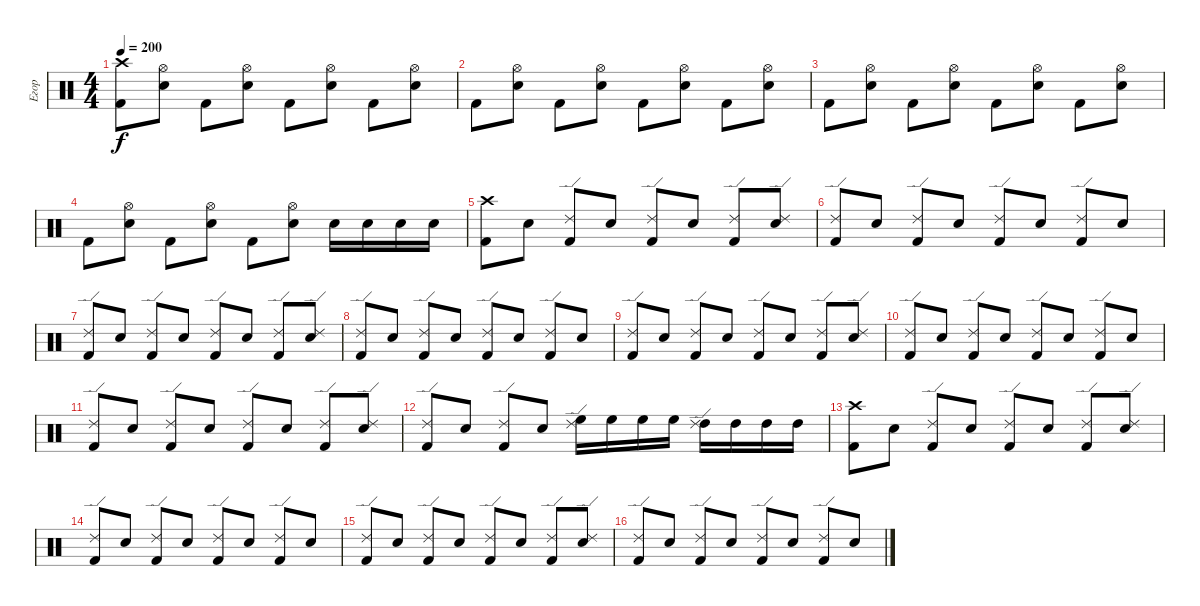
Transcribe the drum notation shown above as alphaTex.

\track ("Егор" "Егор") {instrument percussion}
\staff {score}
\articulation defaults
\ts (4 4)
\tempo 200
\clef neutral
\ks c
("Crash high (hit)" "Kick (hit) 2").8{dy f} ("Hi-Hat (open)" "Snare (hit) 2").8 "Kick (hit) 2".8 ("Hi-Hat (open)" "Snare (hit) 2").8 "Kick (hit) 2".8 ("Hi-Hat (open)" "Snare (hit) 2").8 "Kick (hit) 2".8 ("Hi-Hat (open)" "Snare (hit) 2").8 |
"Kick (hit) 2".8 ("Hi-Hat (open)" "Snare (hit) 2").8 "Kick (hit) 2".8 ("Hi-Hat (open)" "Snare (hit) 2").8 "Kick (hit) 2".8 ("Hi-Hat (open)" "Snare (hit) 2").8 "Kick (hit) 2".8 ("Hi-Hat (open)" "Snare (hit) 2").8 |
"Kick (hit) 2".8 ("Hi-Hat (open)" "Snare (hit) 2").8 "Kick (hit) 2".8 ("Hi-Hat (open)" "Snare (hit) 2").8 "Kick (hit) 2".8 ("Hi-Hat (open)" "Snare (hit) 2").8 "Kick (hit) 2".8 ("Hi-Hat (open)" "Snare (hit) 2").8 |
"Kick (hit) 2".8 ("Hi-Hat (open)" "Snare (hit) 2").8 "Kick (hit) 2".8 ("Hi-Hat (open)" "Snare (hit) 2").8 "Kick (hit) 2".8 ("Hi-Hat (open)" "Snare (hit) 2").8 "Snare (hit) 2".16 "Snare (hit) 2".16 "Snare (hit) 2".16 "Snare (hit) 2".16 |
("Kick (hit) 2" "Crash high (hit)").8 "Snare (hit) 2".8 ("Kick (hit) 2" "Ride (edge) 2").8 "Snare (hit) 2".8 ("Kick (hit) 2" "Ride (edge) 2").8 "Snare (hit) 2".8 ("Kick (hit) 2" "Ride (edge) 2").8 ("Snare (hit) 2" "Ride (edge) 2").8 |
("Kick (hit) 2" "Ride (edge) 2").8 "Snare (hit) 2".8 ("Kick (hit) 2" "Ride (edge) 2").8 "Snare (hit) 2".8 ("Kick (hit) 2" "Ride (edge) 2").8 "Snare (hit) 2".8 ("Kick (hit) 2" "Ride (edge) 2").8 "Snare (hit) 2".8 |
("Kick (hit) 2" "Ride (edge) 2").8 "Snare (hit) 2".8 ("Kick (hit) 2" "Ride (edge) 2").8 "Snare (hit) 2".8 ("Kick (hit) 2" "Ride (edge) 2").8 "Snare (hit) 2".8 ("Kick (hit) 2" "Ride (edge) 2").8 ("Snare (hit) 2" "Ride (edge) 2").8 |
("Kick (hit) 2" "Ride (edge) 2").8 "Snare (hit) 2".8 ("Kick (hit) 2" "Ride (edge) 2").8 "Snare (hit) 2".8 ("Kick (hit) 2" "Ride (edge) 2").8 "Snare (hit) 2".8 ("Kick (hit) 2" "Ride (edge) 2").8 "Snare (hit) 2".8 |
("Kick (hit) 2" "Ride (edge) 2").8 "Snare (hit) 2".8 ("Kick (hit) 2" "Ride (edge) 2").8 "Snare (hit) 2".8 ("Kick (hit) 2" "Ride (edge) 2").8 "Snare (hit) 2".8 ("Kick (hit) 2" "Ride (edge) 2").8 ("Snare (hit) 2" "Ride (edge) 2").8 |
("Kick (hit) 2" "Ride (edge) 2").8 "Snare (hit) 2".8 ("Kick (hit) 2" "Ride (edge) 2").8 "Snare (hit) 2".8 ("Kick (hit) 2" "Ride (edge) 2").8 "Snare (hit) 2".8 ("Kick (hit) 2" "Ride (edge) 2").8 "Snare (hit) 2".8 |
("Kick (hit) 2" "Ride (edge) 2").8 "Snare (hit) 2".8 ("Kick (hit) 2" "Ride (edge) 2").8 "Snare (hit) 2".8 ("Kick (hit) 2" "Ride (edge) 2").8 "Snare (hit) 2".8 ("Kick (hit) 2" "Ride (edge) 2").8 ("Snare (hit) 2" "Ride (edge) 2").8 |
("Kick (hit) 2" "Ride (edge) 2").8 "Snare (hit) 2".8 ("Kick (hit) 2" "Ride (edge) 2").8 "Snare (hit) 2".8 ("High Floor Tom (hit)" "Ride (edge) 2").16 "High Floor Tom (hit)".16 "High Floor Tom (hit)".16 "High Floor Tom (hit)".16 ("High Tom (hit)" "Ride (edge) 2").16 "High Tom (hit)".16 "High Tom (hit)".16 "High Tom (hit)".16 |
("Kick (hit) 2" "Crash high (hit)").8 "Snare (hit) 2".8 ("Kick (hit) 2" "Ride (edge) 2").8 "Snare (hit) 2".8 ("Kick (hit) 2" "Ride (edge) 2").8 "Snare (hit) 2".8 ("Kick (hit) 2" "Ride (edge) 2").8 ("Snare (hit) 2" "Ride (edge) 2").8 |
("Kick (hit) 2" "Ride (edge) 2").8 "Snare (hit) 2".8 ("Kick (hit) 2" "Ride (edge) 2").8 "Snare (hit) 2".8 ("Kick (hit) 2" "Ride (edge) 2").8 "Snare (hit) 2".8 ("Kick (hit) 2" "Ride (edge) 2").8 "Snare (hit) 2".8 |
("Kick (hit) 2" "Ride (edge) 2").8 "Snare (hit) 2".8 ("Kick (hit) 2" "Ride (edge) 2").8 "Snare (hit) 2".8 ("Kick (hit) 2" "Ride (edge) 2").8 "Snare (hit) 2".8 ("Kick (hit) 2" "Ride (edge) 2").8 ("Snare (hit) 2" "Ride (edge) 2").8 |
("Kick (hit) 2" "Ride (edge) 2").8 "Snare (hit) 2".8 ("Kick (hit) 2" "Ride (edge) 2").8 "Snare (hit) 2".8 ("Kick (hit) 2" "Ride (edge) 2").8 "Snare (hit) 2".8 ("Kick (hit) 2" "Ride (edge) 2").8 "Snare (hit) 2".8
